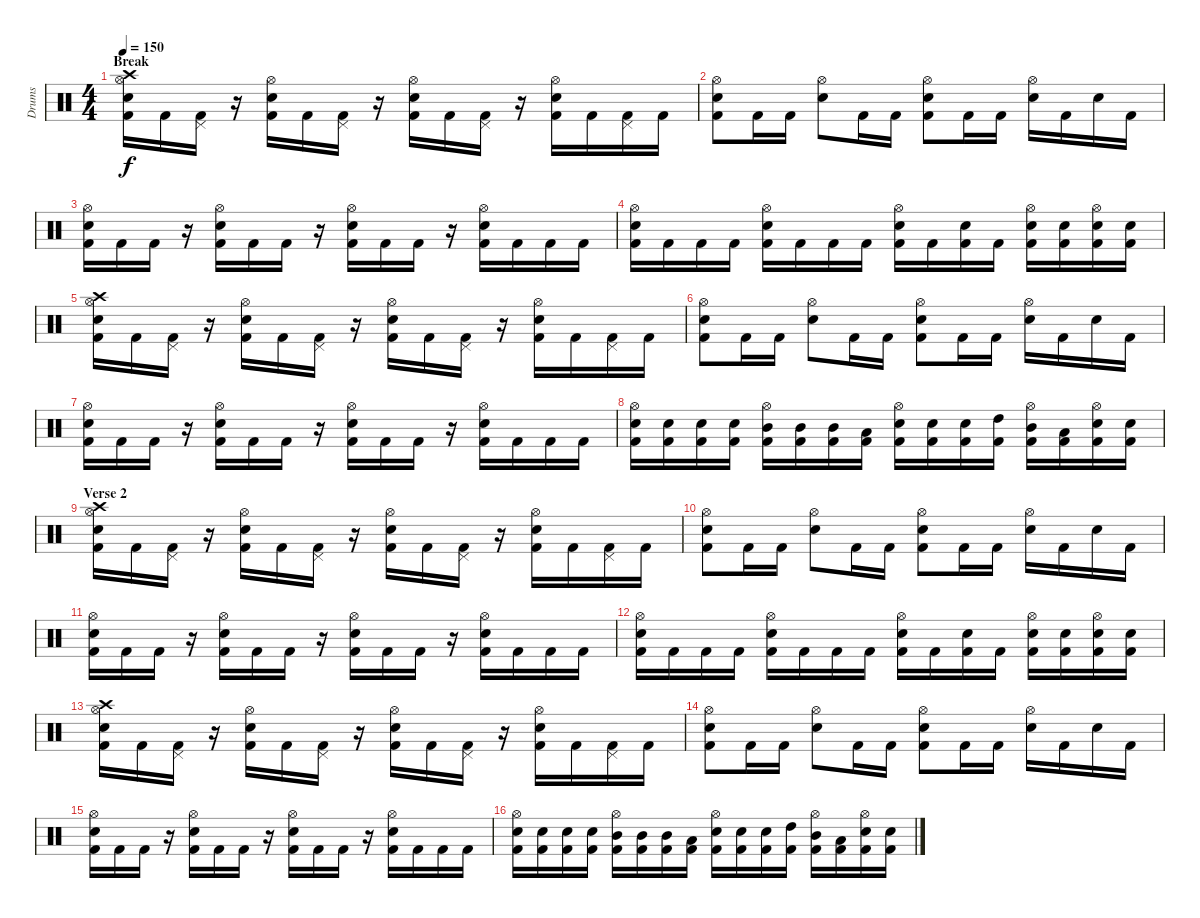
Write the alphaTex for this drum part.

\track ("Drums" "Drums") {instrument percussion}
\staff {score}
\articulation defaults
\ts (4 4)
\section ("" "Break")
\tempo 150
\clef neutral
\ks c
("Crash high (hit)" "Hi-Hat (open)" "Electric Snare (hit)" "Kick (hit) 2").16{dy f} "Kick (hit) 2".16 ("Pedal Hi-Hat (hit)" "Kick (hit) 2").16 r.16 ("Hi-Hat (open)" "Electric Snare (hit)" "Kick (hit) 2").16 "Kick (hit) 2".16 ("Pedal Hi-Hat (hit)" "Kick (hit) 2").16 r.16 ("Hi-Hat (open)" "Electric Snare (hit)" "Kick (hit) 2").16 "Kick (hit) 2".16 ("Pedal Hi-Hat (hit)" "Kick (hit) 2").16 r.16 ("Hi-Hat (open)" "Electric Snare (hit)" "Kick (hit) 2").16 "Kick (hit) 2".16 ("Pedal Hi-Hat (hit)" "Kick (hit) 2").16 "Kick (hit) 2".16 |
("Hi-Hat (open)" "Electric Snare (hit)" "Kick (hit) 2").8 "Kick (hit) 2".16 "Kick (hit) 2".16 ("Hi-Hat (open)" "Electric Snare (hit)").8 "Kick (hit) 2".16 "Kick (hit) 2".16 ("Hi-Hat (open)" "Electric Snare (hit)" "Kick (hit) 2").8 "Kick (hit) 2".16 "Kick (hit) 2".16 ("Hi-Hat (open)" "Electric Snare (hit)").16 "Kick (hit) 2".16 "Electric Snare (hit)".16 "Kick (hit) 2".16 |
("Hi-Hat (open)" "Electric Snare (hit)" "Kick (hit) 2").16 "Kick (hit) 2".16 "Kick (hit) 2".16 r.16 ("Hi-Hat (open)" "Electric Snare (hit)" "Kick (hit) 2").16 "Kick (hit) 2".16 "Kick (hit) 2".16 r.16 ("Hi-Hat (open)" "Electric Snare (hit)" "Kick (hit) 2").16 "Kick (hit) 2".16 "Kick (hit) 2".16 r.16 ("Hi-Hat (open)" "Electric Snare (hit)" "Kick (hit) 2").16 "Kick (hit) 2".16 "Kick (hit) 2".16 "Kick (hit) 2".16 |
("Hi-Hat (open)" "Electric Snare (hit)" "Kick (hit) 2").16 "Kick (hit) 2".16 "Kick (hit) 2".16 "Kick (hit) 2".16 ("Hi-Hat (open)" "Electric Snare (hit)" "Kick (hit) 2").16 "Kick (hit) 2".16 "Kick (hit) 2".16 "Kick (hit) 2".16 ("Hi-Hat (open)" "Electric Snare (hit)" "Kick (hit) 2").16 "Kick (hit) 2".16 ("Electric Snare (hit)" "Kick (hit) 2").16 "Kick (hit) 2".16 ("Hi-Hat (open)" "Electric Snare (hit)" "Kick (hit) 2").16 ("Electric Snare (hit)" "Kick (hit) 2").16 ("Hi-Hat (open)" "Electric Snare (hit)" "Kick (hit) 2").16 ("Electric Snare (hit)" "Kick (hit) 2").16 |
("Crash high (hit)" "Hi-Hat (open)" "Electric Snare (hit)" "Kick (hit) 2").16 "Kick (hit) 2".16 ("Pedal Hi-Hat (hit)" "Kick (hit) 2").16 r.16 ("Hi-Hat (open)" "Electric Snare (hit)" "Kick (hit) 2").16 "Kick (hit) 2".16 ("Pedal Hi-Hat (hit)" "Kick (hit) 2").16 r.16 ("Hi-Hat (open)" "Electric Snare (hit)" "Kick (hit) 2").16 "Kick (hit) 2".16 ("Pedal Hi-Hat (hit)" "Kick (hit) 2").16 r.16 ("Hi-Hat (open)" "Electric Snare (hit)" "Kick (hit) 2").16 "Kick (hit) 2".16 ("Pedal Hi-Hat (hit)" "Kick (hit) 2").16 "Kick (hit) 2".16 |
("Hi-Hat (open)" "Electric Snare (hit)" "Kick (hit) 2").8 "Kick (hit) 2".16 "Kick (hit) 2".16 ("Hi-Hat (open)" "Electric Snare (hit)").8 "Kick (hit) 2".16 "Kick (hit) 2".16 ("Hi-Hat (open)" "Electric Snare (hit)" "Kick (hit) 2").8 "Kick (hit) 2".16 "Kick (hit) 2".16 ("Hi-Hat (open)" "Electric Snare (hit)").16 "Kick (hit) 2".16 "Electric Snare (hit)".16 "Kick (hit) 2".16 |
("Hi-Hat (open)" "Electric Snare (hit)" "Kick (hit) 2").16 "Kick (hit) 2".16 "Kick (hit) 2".16 r.16 ("Hi-Hat (open)" "Electric Snare (hit)" "Kick (hit) 2").16 "Kick (hit) 2".16 "Kick (hit) 2".16 r.16 ("Hi-Hat (open)" "Electric Snare (hit)" "Kick (hit) 2").16 "Kick (hit) 2".16 "Kick (hit) 2".16 r.16 ("Hi-Hat (open)" "Electric Snare (hit)" "Kick (hit) 2").16 "Kick (hit) 2".16 "Kick (hit) 2".16 "Kick (hit) 2".16 |
("Hi-Hat (open)" "Electric Snare (hit)" "Kick (hit) 2").16 ("Electric Snare (hit)" "Kick (hit) 2").16 ("Electric Snare (hit)" "Kick (hit) 2").16 ("Electric Snare (hit)" "Kick (hit) 2").16 ("Hi-Hat (open)" "Mid Tom (hit)" "Kick (hit) 2").16 ("Mid Tom (hit)" "Kick (hit) 2").16 ("Mid Tom (hit)" "Kick (hit) 2").16 ("Low Tom (hit)" "Kick (hit) 2").16 ("Hi-Hat (open)" "Electric Snare (hit)" "Kick (hit) 2").16 ("Electric Snare (hit)" "Kick (hit) 2").16 ("Electric Snare (hit)" "Kick (hit) 2").16 ("High Tom (hit)" "Kick (hit) 2").16 ("Hi-Hat (open)" "Mid Tom (hit)" "Kick (hit) 2").16 ("Low Tom (hit)" "Kick (hit) 2").16 ("Hi-Hat (open)" "Electric Snare (hit)" "Kick (hit) 2").16 ("Electric Snare (hit)" "Kick (hit) 2").16 |
\section ("" "Verse 2")
("Crash high (hit)" "Hi-Hat (open)" "Electric Snare (hit)" "Kick (hit) 2").16 "Kick (hit) 2".16 ("Pedal Hi-Hat (hit)" "Kick (hit) 2").16 r.16 ("Hi-Hat (open)" "Electric Snare (hit)" "Kick (hit) 2").16 "Kick (hit) 2".16 ("Pedal Hi-Hat (hit)" "Kick (hit) 2").16 r.16 ("Hi-Hat (open)" "Electric Snare (hit)" "Kick (hit) 2").16 "Kick (hit) 2".16 ("Pedal Hi-Hat (hit)" "Kick (hit) 2").16 r.16 ("Hi-Hat (open)" "Electric Snare (hit)" "Kick (hit) 2").16 "Kick (hit) 2".16 ("Pedal Hi-Hat (hit)" "Kick (hit) 2").16 "Kick (hit) 2".16 |
("Hi-Hat (open)" "Electric Snare (hit)" "Kick (hit) 2").8 "Kick (hit) 2".16 "Kick (hit) 2".16 ("Hi-Hat (open)" "Electric Snare (hit)").8 "Kick (hit) 2".16 "Kick (hit) 2".16 ("Hi-Hat (open)" "Electric Snare (hit)" "Kick (hit) 2").8 "Kick (hit) 2".16 "Kick (hit) 2".16 ("Hi-Hat (open)" "Electric Snare (hit)").16 "Kick (hit) 2".16 "Electric Snare (hit)".16 "Kick (hit) 2".16 |
("Hi-Hat (open)" "Electric Snare (hit)" "Kick (hit) 2").16 "Kick (hit) 2".16 "Kick (hit) 2".16 r.16 ("Hi-Hat (open)" "Electric Snare (hit)" "Kick (hit) 2").16 "Kick (hit) 2".16 "Kick (hit) 2".16 r.16 ("Hi-Hat (open)" "Electric Snare (hit)" "Kick (hit) 2").16 "Kick (hit) 2".16 "Kick (hit) 2".16 r.16 ("Hi-Hat (open)" "Electric Snare (hit)" "Kick (hit) 2").16 "Kick (hit) 2".16 "Kick (hit) 2".16 "Kick (hit) 2".16 |
("Hi-Hat (open)" "Electric Snare (hit)" "Kick (hit) 2").16 "Kick (hit) 2".16 "Kick (hit) 2".16 "Kick (hit) 2".16 ("Hi-Hat (open)" "Electric Snare (hit)" "Kick (hit) 2").16 "Kick (hit) 2".16 "Kick (hit) 2".16 "Kick (hit) 2".16 ("Hi-Hat (open)" "Electric Snare (hit)" "Kick (hit) 2").16 "Kick (hit) 2".16 ("Electric Snare (hit)" "Kick (hit) 2").16 "Kick (hit) 2".16 ("Hi-Hat (open)" "Electric Snare (hit)" "Kick (hit) 2").16 ("Electric Snare (hit)" "Kick (hit) 2").16 ("Hi-Hat (open)" "Electric Snare (hit)" "Kick (hit) 2").16 ("Electric Snare (hit)" "Kick (hit) 2").16 |
("Crash high (hit)" "Hi-Hat (open)" "Electric Snare (hit)" "Kick (hit) 2").16 "Kick (hit) 2".16 ("Pedal Hi-Hat (hit)" "Kick (hit) 2").16 r.16 ("Hi-Hat (open)" "Electric Snare (hit)" "Kick (hit) 2").16 "Kick (hit) 2".16 ("Pedal Hi-Hat (hit)" "Kick (hit) 2").16 r.16 ("Hi-Hat (open)" "Electric Snare (hit)" "Kick (hit) 2").16 "Kick (hit) 2".16 ("Pedal Hi-Hat (hit)" "Kick (hit) 2").16 r.16 ("Hi-Hat (open)" "Electric Snare (hit)" "Kick (hit) 2").16 "Kick (hit) 2".16 ("Pedal Hi-Hat (hit)" "Kick (hit) 2").16 "Kick (hit) 2".16 |
("Hi-Hat (open)" "Electric Snare (hit)" "Kick (hit) 2").8 "Kick (hit) 2".16 "Kick (hit) 2".16 ("Hi-Hat (open)" "Electric Snare (hit)").8 "Kick (hit) 2".16 "Kick (hit) 2".16 ("Hi-Hat (open)" "Electric Snare (hit)" "Kick (hit) 2").8 "Kick (hit) 2".16 "Kick (hit) 2".16 ("Hi-Hat (open)" "Electric Snare (hit)").16 "Kick (hit) 2".16 "Electric Snare (hit)".16 "Kick (hit) 2".16 |
("Hi-Hat (open)" "Electric Snare (hit)" "Kick (hit) 2").16 "Kick (hit) 2".16 "Kick (hit) 2".16 r.16 ("Hi-Hat (open)" "Electric Snare (hit)" "Kick (hit) 2").16 "Kick (hit) 2".16 "Kick (hit) 2".16 r.16 ("Hi-Hat (open)" "Electric Snare (hit)" "Kick (hit) 2").16 "Kick (hit) 2".16 "Kick (hit) 2".16 r.16 ("Hi-Hat (open)" "Electric Snare (hit)" "Kick (hit) 2").16 "Kick (hit) 2".16 "Kick (hit) 2".16 "Kick (hit) 2".16 |
("Hi-Hat (open)" "Electric Snare (hit)" "Kick (hit) 2").16 ("Electric Snare (hit)" "Kick (hit) 2").16 ("Electric Snare (hit)" "Kick (hit) 2").16 ("Electric Snare (hit)" "Kick (hit) 2").16 ("Hi-Hat (open)" "Mid Tom (hit)" "Kick (hit) 2").16 ("Mid Tom (hit)" "Kick (hit) 2").16 ("Mid Tom (hit)" "Kick (hit) 2").16 ("Low Tom (hit)" "Kick (hit) 2").16 ("Hi-Hat (open)" "Electric Snare (hit)" "Kick (hit) 2").16 ("Electric Snare (hit)" "Kick (hit) 2").16 ("Electric Snare (hit)" "Kick (hit) 2").16 ("High Tom (hit)" "Kick (hit) 2").16 ("Hi-Hat (open)" "Mid Tom (hit)" "Kick (hit) 2").16 ("Low Tom (hit)" "Kick (hit) 2").16 ("Hi-Hat (open)" "Electric Snare (hit)" "Kick (hit) 2").16 ("Electric Snare (hit)" "Kick (hit) 2").16
